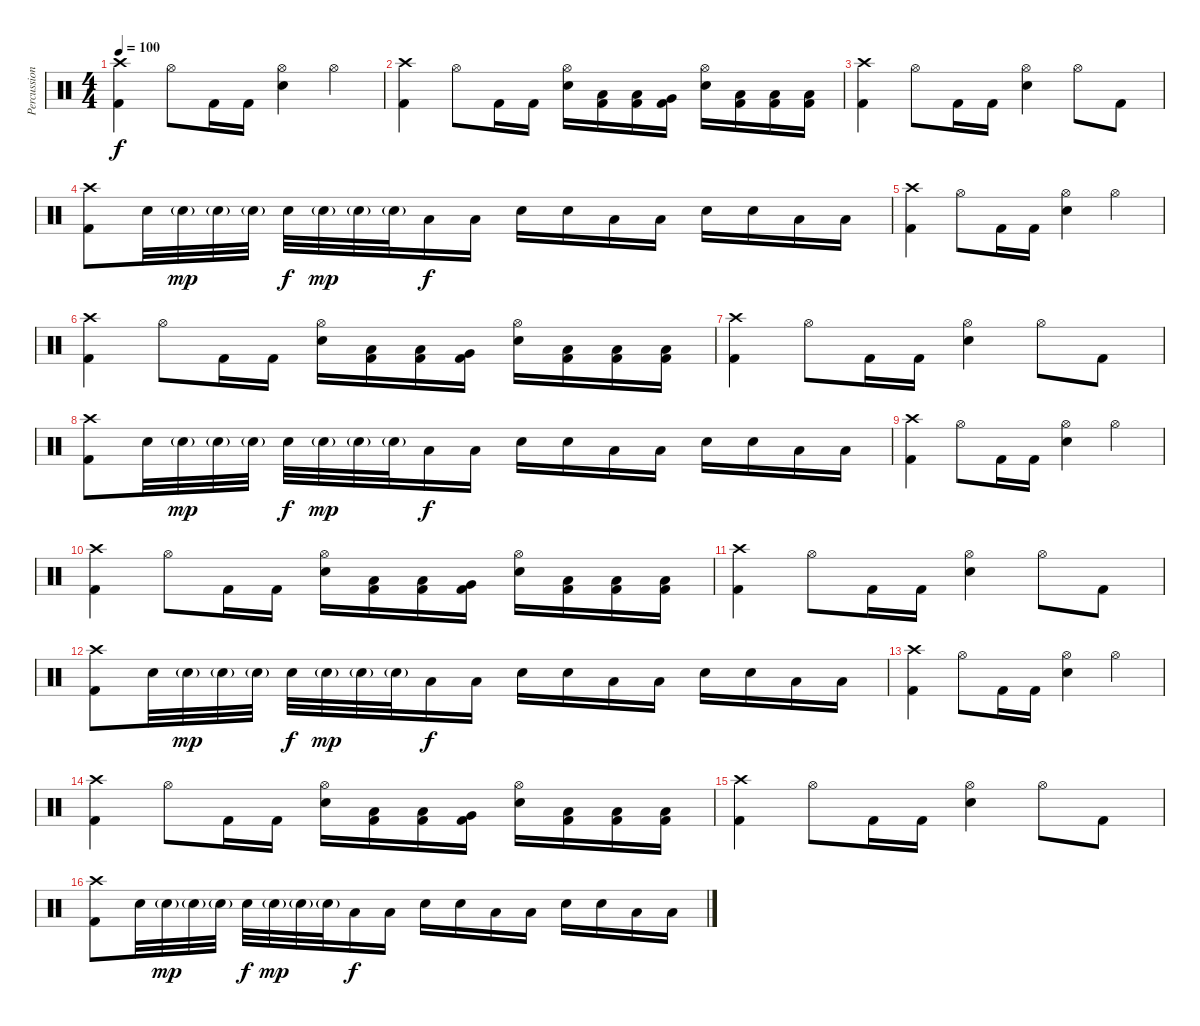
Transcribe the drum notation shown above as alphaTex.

\track ("Percussion" "Percussion") {instrument percussion}
\staff {score}
\articulation defaults
\ts (4 4)
\tempo 100
\clef neutral
\ks c
("Crash high (hit)" "Kick (hit) 2").4{dy f} "Hi-Hat (open)".8 "Kick (hit) 2".16 "Kick (hit) 2".16 ("Hi-Hat (open)" "Electric Snare (hit)").4 "Hi-Hat (open)".4 |
("Crash high (hit)" "Kick (hit) 2").4 "Hi-Hat (open)".8 "Kick (hit) 2".16 "Kick (hit) 2".16 ("Hi-Hat (open)" "Electric Snare (hit)").16 ("Low Tom (hit)" "Kick (hit) 2").16 ("Low Tom (hit)" "Kick (hit) 2").16 ("Very Low Tom (hit)" "Kick (hit) 2").16 ("Hi-Hat (open)" "Electric Snare (hit)").16 ("Low Tom (hit)" "Kick (hit) 2").16 ("Low Tom (hit)" "Kick (hit) 2").16 ("Low Tom (hit)" "Kick (hit) 2").16 |
("Crash high (hit)" "Kick (hit) 2").4 "Hi-Hat (open)".8 "Kick (hit) 2".16 "Kick (hit) 2".16 ("Hi-Hat (open)" "Electric Snare (hit)").4 "Hi-Hat (open)".8 "Kick (hit) 2".8 |
("Crash high (hit)" "Kick (hit) 2").8 "Electric Snare (hit)".32 "Electric Snare (hit)"{g}.32{dy mp} "Electric Snare (hit)"{g}.32 "Electric Snare (hit)"{g}.32 "Electric Snare (hit)".32{dy f} "Electric Snare (hit)"{g}.32{dy mp} "Electric Snare (hit)"{g}.32 "Electric Snare (hit)"{g}.32 "Low Tom (hit)".16{dy f} "Low Tom (hit)".16 "Electric Snare (hit)".16 "Electric Snare (hit)".16 "Low Tom (hit)".16 "Low Tom (hit)".16 "Electric Snare (hit)".16 "Electric Snare (hit)".16 "Low Tom (hit)".16 "Low Tom (hit)".16 |
("Crash high (hit)" "Kick (hit) 2").4 "Hi-Hat (open)".8 "Kick (hit) 2".16 "Kick (hit) 2".16 ("Hi-Hat (open)" "Electric Snare (hit)").4 "Hi-Hat (open)".4 |
("Crash high (hit)" "Kick (hit) 2").4 "Hi-Hat (open)".8 "Kick (hit) 2".16 "Kick (hit) 2".16 ("Hi-Hat (open)" "Electric Snare (hit)").16 ("Low Tom (hit)" "Kick (hit) 2").16 ("Low Tom (hit)" "Kick (hit) 2").16 ("Very Low Tom (hit)" "Kick (hit) 2").16 ("Hi-Hat (open)" "Electric Snare (hit)").16 ("Low Tom (hit)" "Kick (hit) 2").16 ("Low Tom (hit)" "Kick (hit) 2").16 ("Low Tom (hit)" "Kick (hit) 2").16 |
("Crash high (hit)" "Kick (hit) 2").4 "Hi-Hat (open)".8 "Kick (hit) 2".16 "Kick (hit) 2".16 ("Hi-Hat (open)" "Electric Snare (hit)").4 "Hi-Hat (open)".8 "Kick (hit) 2".8 |
("Crash high (hit)" "Kick (hit) 2").8 "Electric Snare (hit)".32 "Electric Snare (hit)"{g}.32{dy mp} "Electric Snare (hit)"{g}.32 "Electric Snare (hit)"{g}.32 "Electric Snare (hit)".32{dy f} "Electric Snare (hit)"{g}.32{dy mp} "Electric Snare (hit)"{g}.32 "Electric Snare (hit)"{g}.32 "Low Tom (hit)".16{dy f} "Low Tom (hit)".16 "Electric Snare (hit)".16 "Electric Snare (hit)".16 "Low Tom (hit)".16 "Low Tom (hit)".16 "Electric Snare (hit)".16 "Electric Snare (hit)".16 "Low Tom (hit)".16 "Low Tom (hit)".16 |
("Crash high (hit)" "Kick (hit) 2").4 "Hi-Hat (open)".8 "Kick (hit) 2".16 "Kick (hit) 2".16 ("Hi-Hat (open)" "Electric Snare (hit)").4 "Hi-Hat (open)".4 |
("Crash high (hit)" "Kick (hit) 2").4 "Hi-Hat (open)".8 "Kick (hit) 2".16 "Kick (hit) 2".16 ("Hi-Hat (open)" "Electric Snare (hit)").16 ("Low Tom (hit)" "Kick (hit) 2").16 ("Low Tom (hit)" "Kick (hit) 2").16 ("Very Low Tom (hit)" "Kick (hit) 2").16 ("Hi-Hat (open)" "Electric Snare (hit)").16 ("Low Tom (hit)" "Kick (hit) 2").16 ("Low Tom (hit)" "Kick (hit) 2").16 ("Low Tom (hit)" "Kick (hit) 2").16 |
("Crash high (hit)" "Kick (hit) 2").4 "Hi-Hat (open)".8 "Kick (hit) 2".16 "Kick (hit) 2".16 ("Hi-Hat (open)" "Electric Snare (hit)").4 "Hi-Hat (open)".8 "Kick (hit) 2".8 |
("Crash high (hit)" "Kick (hit) 2").8 "Electric Snare (hit)".32 "Electric Snare (hit)"{g}.32{dy mp} "Electric Snare (hit)"{g}.32 "Electric Snare (hit)"{g}.32 "Electric Snare (hit)".32{dy f} "Electric Snare (hit)"{g}.32{dy mp} "Electric Snare (hit)"{g}.32 "Electric Snare (hit)"{g}.32 "Low Tom (hit)".16{dy f} "Low Tom (hit)".16 "Electric Snare (hit)".16 "Electric Snare (hit)".16 "Low Tom (hit)".16 "Low Tom (hit)".16 "Electric Snare (hit)".16 "Electric Snare (hit)".16 "Low Tom (hit)".16 "Low Tom (hit)".16 |
("Crash high (hit)" "Kick (hit) 2").4 "Hi-Hat (open)".8 "Kick (hit) 2".16 "Kick (hit) 2".16 ("Hi-Hat (open)" "Electric Snare (hit)").4 "Hi-Hat (open)".4 |
("Crash high (hit)" "Kick (hit) 2").4 "Hi-Hat (open)".8 "Kick (hit) 2".16 "Kick (hit) 2".16 ("Hi-Hat (open)" "Electric Snare (hit)").16 ("Low Tom (hit)" "Kick (hit) 2").16 ("Low Tom (hit)" "Kick (hit) 2").16 ("Very Low Tom (hit)" "Kick (hit) 2").16 ("Hi-Hat (open)" "Electric Snare (hit)").16 ("Low Tom (hit)" "Kick (hit) 2").16 ("Low Tom (hit)" "Kick (hit) 2").16 ("Low Tom (hit)" "Kick (hit) 2").16 |
("Crash high (hit)" "Kick (hit) 2").4 "Hi-Hat (open)".8 "Kick (hit) 2".16 "Kick (hit) 2".16 ("Hi-Hat (open)" "Electric Snare (hit)").4 "Hi-Hat (open)".8 "Kick (hit) 2".8 |
("Crash high (hit)" "Kick (hit) 2").8 "Electric Snare (hit)".32 "Electric Snare (hit)"{g}.32{dy mp} "Electric Snare (hit)"{g}.32 "Electric Snare (hit)"{g}.32 "Electric Snare (hit)".32{dy f} "Electric Snare (hit)"{g}.32{dy mp} "Electric Snare (hit)"{g}.32 "Electric Snare (hit)"{g}.32 "Low Tom (hit)".16{dy f} "Low Tom (hit)".16 "Electric Snare (hit)".16 "Electric Snare (hit)".16 "Low Tom (hit)".16 "Low Tom (hit)".16 "Electric Snare (hit)".16 "Electric Snare (hit)".16 "Low Tom (hit)".16 "Low Tom (hit)".16
